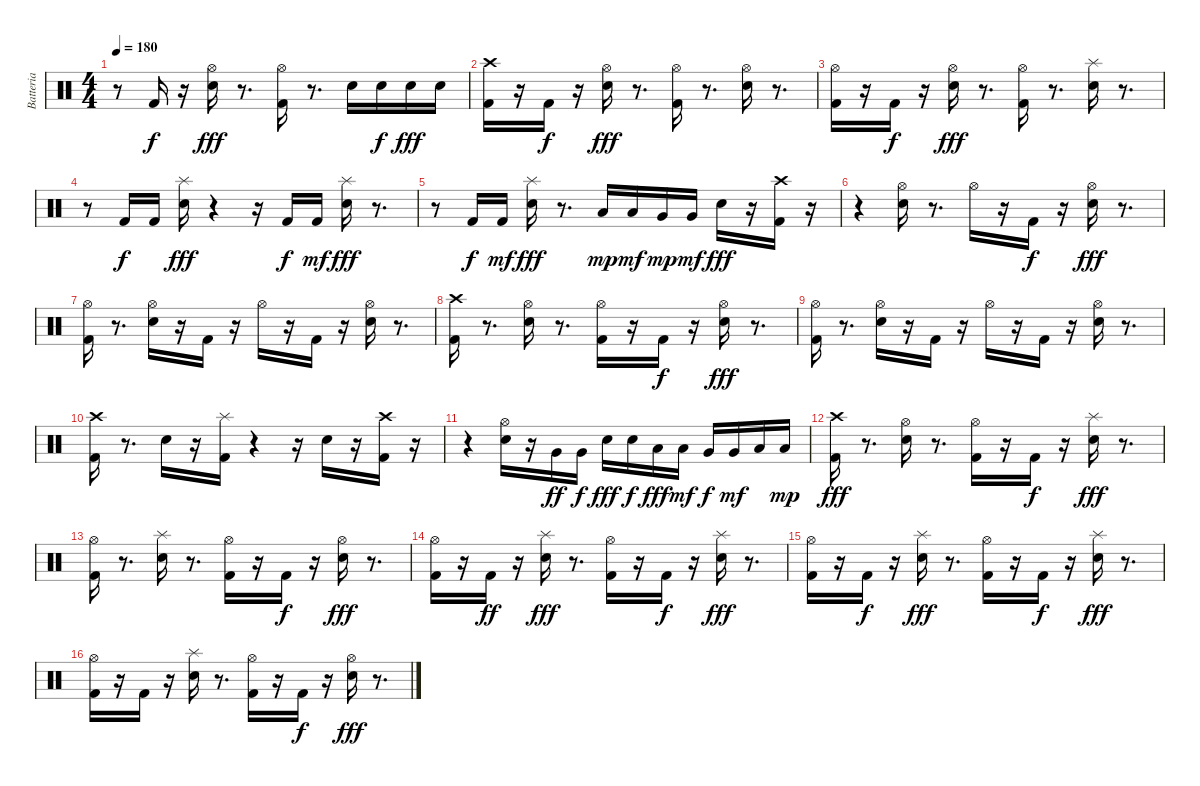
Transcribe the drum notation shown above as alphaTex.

\track ("Batteria" "Batteria") {instrument percussion}
\staff {score}
\articulation defaults
\ts (4 4)
\tempo 180
\clef neutral
\ks c
r.8{dy fff} "Kick (hit) 2".16{dy f} r.16 ("Hi-Hat (open)" "Electric Snare (hit)").16{dy fff} r.8{d} ("Hi-Hat (open)" "Kick (hit) 2").16 r.8{d} "Electric Snare (hit)".16 "Electric Snare (hit)".16{dy f} "Electric Snare (hit)".16{dy fff} "Electric Snare (hit)".16 |
("Crash high (hit)" "Kick (hit) 2").16 r.16 "Kick (hit) 2".16{dy f} r.16 ("Electric Snare (hit)" "Hi-Hat (open)").16{dy fff} r.8{d} ("Hi-Hat (open)" "Kick (hit) 2").16 r.8{d} ("Electric Snare (hit)" "Hi-Hat (open)").16 r.8{d} |
("Kick (hit) 2" "Hi-Hat (open)").16 r.16 "Kick (hit) 2".16{dy f} r.16 ("Electric Snare (hit)" "Hi-Hat (open)").16{dy fff} r.8{d} ("Hi-Hat (open)" "Kick (hit) 2").16 r.8{d} ("Splash (hit)" "Electric Snare (hit)").16 r.8{d} |
r.8 "Kick (hit) 2".16{dy f} "Kick (hit) 2".16 ("Splash (hit)" "Electric Snare (hit)").16{dy fff} r.4 r.16 "Kick (hit) 2".16{dy f} "Kick (hit) 2".16{dy mf} ("Splash (hit)" "Electric Snare (hit)").16{dy fff} r.8{d} |
r.8 "Kick (hit) 2".16{dy f} "Kick (hit) 2".16{dy mf} ("Splash (hit)" "Electric Snare (hit)").16{dy fff} r.8{d} "Low Tom (hit)".16{dy mp} "Low Tom (hit)".16{dy mf} "Very Low Tom (hit)".16{dy mp} "Very Low Tom (hit)".16{dy mf} "Electric Snare (hit)".16{dy fff} r.16 ("Kick (hit) 2" "Crash high (hit)").16 r.16 |
r.4 ("Hi-Hat (open)" "Electric Snare (hit)").16 r.8{d} "Hi-Hat (open)".16 r.16 "Kick (hit) 2".16{dy f} r.16 ("Hi-Hat (open)" "Electric Snare (hit)").16{dy fff} r.8{d} |
("Kick (hit) 2" "Hi-Hat (open)").16 r.8{d} ("Electric Snare (hit)" "Hi-Hat (open)").16 r.16 "Kick (hit) 2".16 r.16 "Hi-Hat (open)".16 r.16 "Kick (hit) 2".16 r.16 ("Electric Snare (hit)" "Hi-Hat (open)").16 r.8{d} |
("Crash high (hit)" "Kick (hit) 2").16 r.8{d} ("Hi-Hat (open)" "Electric Snare (hit)").16 r.8{d} ("Kick (hit) 2" "Hi-Hat (open)").16 r.16 "Kick (hit) 2".16{dy f} r.16 ("Hi-Hat (open)" "Electric Snare (hit)").16{dy fff} r.8{d} |
("Hi-Hat (open)" "Kick (hit) 2").16 r.8{d} ("Hi-Hat (open)" "Electric Snare (hit)").16 r.16 "Kick (hit) 2".16 r.16 "Hi-Hat (open)".16 r.16 "Kick (hit) 2".16 r.16 ("Hi-Hat (open)" "Electric Snare (hit)").16 r.8{d} |
("Crash high (hit)" "Kick (hit) 2").16 r.8{d} "Electric Snare (hit)".16 r.16 ("Splash (hit)" "Kick (hit) 2").16 r.4 r.16 "Electric Snare (hit)".16 r.16 ("Crash high (hit)" "Kick (hit) 2").16 r.16 |
r.4 ("Hi-Hat (open)" "Electric Snare (hit)").16 r.16 "Very Low Tom (hit)".16{dy ff} "Very Low Tom (hit)".16{dy f} "Electric Snare (hit)".16{dy fff} "Electric Snare (hit)".16{dy f} "Low Tom (hit)".16{dy fff} "Low Tom (hit)".16{dy mf} "Very Low Tom (hit)".16{dy f} "Very Low Tom (hit)".16{dy mf} "Low Floor Tom (hit)".16 "Low Floor Tom (hit)".16{dy mp} |
("Crash high (hit)" "Kick (hit) 2").16{dy fff} r.8{d} ("Hi-Hat (open)" "Electric Snare (hit)").16 r.8{d} ("Kick (hit) 2" "Hi-Hat (open)").16 r.16 "Kick (hit) 2".16{dy f} r.16 ("Splash (hit)" "Electric Snare (hit)").16{dy fff} r.8{d} |
("Hi-Hat (open)" "Kick (hit) 2").16 r.8{d} ("Splash (hit)" "Electric Snare (hit)").16 r.8{d} ("Kick (hit) 2" "Hi-Hat (open)").16 r.16 "Kick (hit) 2".16{dy f} r.16 ("Hi-Hat (open)" "Electric Snare (hit)").16{dy fff} r.8{d} |
("Hi-Hat (open)" "Kick (hit) 2").16 r.16 "Kick (hit) 2".16{dy ff} r.16 ("Splash (hit)" "Electric Snare (hit)").16{dy fff} r.8{d} ("Kick (hit) 2" "Hi-Hat (open)").16 r.16 "Kick (hit) 2".16{dy f} r.16 ("Splash (hit)" "Electric Snare (hit)").16{dy fff} r.8{d} |
("Hi-Hat (open)" "Kick (hit) 2").16 r.16 "Kick (hit) 2".16{dy f} r.16 ("Splash (hit)" "Electric Snare (hit)").16{dy fff} r.8{d} ("Kick (hit) 2" "Hi-Hat (open)").16 r.16 "Kick (hit) 2".16{dy f} r.16 ("Splash (hit)" "Electric Snare (hit)").16{dy fff} r.8{d} |
("Hi-Hat (open)" "Kick (hit) 2").16 r.16 "Kick (hit) 2".16 r.16 ("Splash (hit)" "Electric Snare (hit)").16 r.8{d} ("Kick (hit) 2" "Hi-Hat (open)").16 r.16 "Kick (hit) 2".16{dy f} r.16 ("Hi-Hat (open)" "Electric Snare (hit)").16{dy fff} r.8{d}
